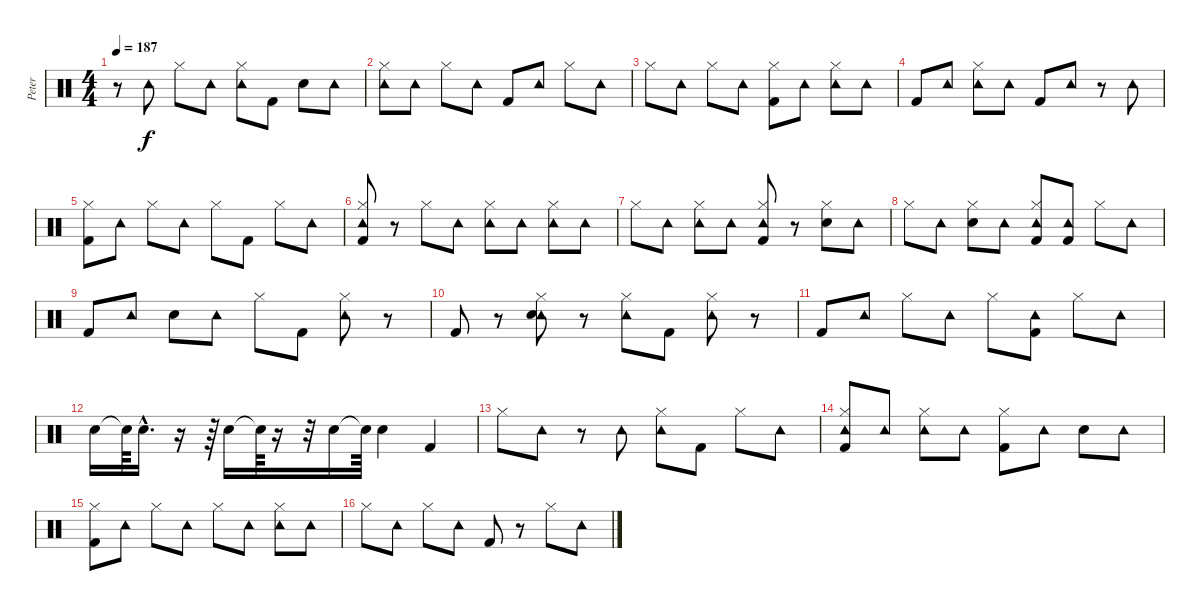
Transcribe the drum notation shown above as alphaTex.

\track ("Peter" "Peter") {instrument percussion}
\staff {score}
\articulation defaults
\ts (4 4)
\tempo 187
\clef neutral
\ks c
r.8{dy f} "Tambourine (hit)".8 "Hi-Hat (closed)".8 "Tambourine (hit)".8 ("Tambourine (hit)" "Hi-Hat (closed)").8 "Kick (hit) 2".8 "Electric Snare (hit)".8 "Tambourine (hit)".8 |
("Tambourine (hit)" "Hi-Hat (closed)").8 "Tambourine (hit)".8 "Hi-Hat (closed)".8 "Tambourine (hit)".8 "Kick (hit) 2".8 "Tambourine (hit)".8 "Hi-Hat (closed)".8 "Tambourine (hit)".8 |
"Hi-Hat (closed)".8 "Tambourine (hit)".8 "Hi-Hat (closed)".8 "Tambourine (hit)".8 ("Hi-Hat (closed)" "Kick (hit) 2").8 "Tambourine (hit)".8 ("Tambourine (hit)" "Hi-Hat (closed)").8 "Tambourine (hit)".8 |
"Kick (hit) 2".8 "Tambourine (hit)".8 ("Tambourine (hit)" "Hi-Hat (closed)").8 "Tambourine (hit)".8 "Kick (hit) 2".8 "Tambourine (hit)".8 r.8 "Tambourine (hit)".8 |
("Hi-Hat (closed)" "Kick (hit) 2").8 "Tambourine (hit)".8 "Hi-Hat (closed)".8 "Tambourine (hit)".8 "Hi-Hat (closed)".8 "Kick (hit) 2".8 "Hi-Hat (closed)".8 "Tambourine (hit)".8 |
("Tambourine (hit)" "Hi-Hat (closed)" "Kick (hit) 2").8 r.8 "Hi-Hat (closed)".8 "Tambourine (hit)".8 ("Tambourine (hit)" "Hi-Hat (closed)").8 "Tambourine (hit)".8 ("Tambourine (hit)" "Hi-Hat (closed)").8 "Tambourine (hit)".8 |
"Hi-Hat (closed)".8 "Tambourine (hit)".8 ("Tambourine (hit)" "Hi-Hat (closed)").8 "Tambourine (hit)".8 ("Tambourine (hit)" "Hi-Hat (closed)" "Kick (hit) 2").8 r.8 ("Hi-Hat (closed)" "Electric Snare (hit)").8 "Tambourine (hit)".8 |
"Hi-Hat (closed)".8 "Tambourine (hit)".8 ("Hi-Hat (closed)" "Electric Snare (hit)").8 "Tambourine (hit)".8 ("Tambourine (hit)" "Hi-Hat (closed)" "Kick (hit) 2").8 ("Tambourine (hit)" "Kick (hit) 2").8 "Hi-Hat (closed)".8 "Tambourine (hit)".8 |
"Kick (hit) 2".8 "Tambourine (hit)".8 "Electric Snare (hit)".8 "Tambourine (hit)".8 "Hi-Hat (closed)".8 "Kick (hit) 2".8 ("Tambourine (hit)" "Hi-Hat (closed)").8 r.8 |
"Kick (hit) 2".8 r.8 ("Tambourine (hit)" "Hi-Hat (closed)" "Electric Snare (hit)").8 r.8 ("Tambourine (hit)" "Hi-Hat (closed)").8 "Kick (hit) 2".8 ("Tambourine (hit)" "Hi-Hat (closed)").8 r.8 |
"Kick (hit) 2".8 "Tambourine (hit)".8 "Hi-Hat (closed)".8 "Tambourine (hit)".8 "Hi-Hat (closed)".8 ("Tambourine (hit)" "Kick (hit) 2").8 "Hi-Hat (closed)".8 "Tambourine (hit)".8 |
"Electric Snare (hit)".16 "Snare (hit)"{t}.64 "Electric Snare (hit)"{hac}.16{d} r.16 r.64 "Electric Snare (hit)".16 "Snare (hit)"{t}.64 r.16 r.32 "Electric Snare (hit)".16 "Snare (hit)"{t}.64 "Electric Snare (hit)".4 "Kick (hit) 2".4 |
"Hi-Hat (closed)".8 "Tambourine (hit)".8 r.8 "Tambourine (hit)".8 ("Tambourine (hit)" "Hi-Hat (closed)").8 "Kick (hit) 2".8 "Hi-Hat (closed)".8 "Tambourine (hit)".8 |
("Tambourine (hit)" "Hi-Hat (closed)" "Kick (hit) 2").8 "Tambourine (hit)".8 ("Tambourine (hit)" "Hi-Hat (closed)").8 "Tambourine (hit)".8 ("Hi-Hat (closed)" "Kick (hit) 2").8 "Tambourine (hit)".8 "Electric Snare (hit)".8 "Tambourine (hit)".8 |
("Hi-Hat (closed)" "Kick (hit) 2").8 "Tambourine (hit)".8 "Hi-Hat (closed)".8 "Tambourine (hit)".8 "Hi-Hat (closed)".8 "Tambourine (hit)".8 ("Tambourine (hit)" "Hi-Hat (closed)").8 "Tambourine (hit)".8 |
"Hi-Hat (closed)".8 "Tambourine (hit)".8 "Hi-Hat (closed)".8 "Tambourine (hit)".8 "Kick (hit) 2".8 r.8 "Hi-Hat (closed)".8 "Tambourine (hit)".8
